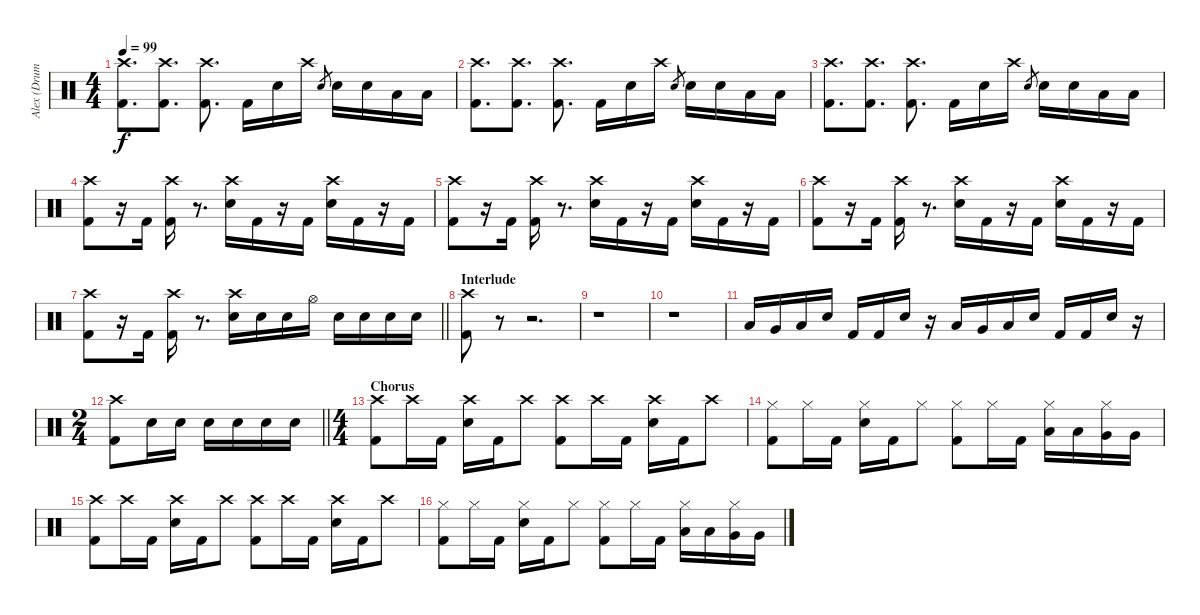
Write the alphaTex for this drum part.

\track ("Alex (Drums)" "Alex (Drum") {instrument percussion}
\staff {score}
\articulation defaults
\ts (4 4)
\tempo 99
\clef neutral
\ks c
("Crash high (hit)" "Kick (hit) 2").8{d dy f} ("Crash high (hit)" "Kick (hit) 2").8{d} ("Crash high (hit)" "Kick (hit) 2").8{d} "Kick (hit) 2".16 "Snare (hit) 2".16 "Crash high (hit)".16 "Snare (hit) 2".8{gr} "Snare (hit) 2".16 "Snare (hit) 2".16 "Low Tom (hit)".16 "Low Tom (hit)".16 |
("Crash high (hit)" "Kick (hit) 2").8{d} ("Crash high (hit)" "Kick (hit) 2").8{d} ("Crash high (hit)" "Kick (hit) 2").8{d} "Kick (hit) 2".16 "Snare (hit) 2".16 "Crash high (hit)".16 "Snare (hit) 2".8{gr} "Snare (hit) 2".16 "Snare (hit) 2".16 "Low Tom (hit)".16 "Low Tom (hit)".16 |
("Crash high (hit)" "Kick (hit) 2").8{d} ("Crash high (hit)" "Kick (hit) 2").8{d} ("Crash high (hit)" "Kick (hit) 2").8{d} "Kick (hit) 2".16 "Snare (hit) 2".16 "Crash high (hit)".16 "Snare (hit) 2".8{gr} "Snare (hit) 2".16 "Snare (hit) 2".16 "Low Tom (hit)".16 "Low Tom (hit)".16 |
("Crash high (hit)" "Kick (hit) 2").8 r.16 "Kick (hit) 2".16 ("Crash high (hit)" "Kick (hit) 2").16 r.8{d} ("Crash high (hit)" "Snare (hit) 2").16 "Kick (hit) 2".16 r.16 "Kick (hit) 2".16 ("Crash high (hit)" "Snare (hit) 2").16 "Kick (hit) 2".16 r.16 "Kick (hit) 2".16 |
("Crash high (hit)" "Kick (hit) 2").8 r.16 "Kick (hit) 2".16 ("Crash high (hit)" "Kick (hit) 2").16 r.8{d} ("Crash high (hit)" "Snare (hit) 2").16 "Kick (hit) 2".16 r.16 "Kick (hit) 2".16 ("Crash high (hit)" "Snare (hit) 2").16 "Kick (hit) 2".16 r.16 "Kick (hit) 2".16 |
("Crash high (hit)" "Kick (hit) 2").8 r.16 "Kick (hit) 2".16 ("Crash high (hit)" "Kick (hit) 2").16 r.8{d} ("Crash high (hit)" "Snare (hit) 2").16 "Kick (hit) 2".16 r.16 "Kick (hit) 2".16 ("Crash high (hit)" "Snare (hit) 2").16 "Kick (hit) 2".16 r.16 "Kick (hit) 2".16 |
\barLineRight lightlight
("Crash high (hit)" "Kick (hit) 2").8 r.16 "Kick (hit) 2".16 ("Crash high (hit)" "Kick (hit) 2").16 r.8{d} ("Crash high (hit)" "Snare (hit) 2").16 "Snare (hit) 2".16 "Snare (hit) 2".16 "Hi-Hat (open)".16 "Snare (hit) 2".16 "Snare (hit) 2".16 "Snare (hit) 2".16 "Snare (hit) 2".16 |
\section ("" "Interlude")
("Crash high (hit)" "Kick (hit) 2").8 r.8 r.2{d} |
r.1 |
r.1 |
"Low Tom (hit)".16 "Very Low Tom (hit)".16 "Low Floor Tom (hit)".16 "Snare (hit) 2".16 "Kick (hit) 2".16 "Kick (hit) 2".16 "Snare (hit) 2".16 r.16 "Low Tom (hit)".16 "Very Low Tom (hit)".16 "Low Floor Tom (hit)".16 "Snare (hit) 2".16 "Kick (hit) 2".16 "Kick (hit) 2".16 "Snare (hit) 2".16 r.16 |
\ts (2 4)
\barLineRight lightlight
("Crash high (hit)" "Kick (hit) 2").8 "Snare (hit) 2".16 "Snare (hit) 2".16 "Snare (hit) 2".16 "Snare (hit) 2".16 "Snare (hit) 2".16 "Snare (hit) 2".16 |
\ts (4 4)
\section ("" "Chorus")
("Crash high (hit)" "Kick (hit) 2").8 "Crash high (hit)".16 "Kick (hit) 2".16 ("Crash high (hit)" "Snare (hit) 2").16 "Kick (hit) 2".16 "Crash high (hit)".8 ("Crash high (hit)" "Kick (hit) 2").8 "Crash high (hit)".16 "Kick (hit) 2".16 ("Crash high (hit)" "Snare (hit) 2").16 "Kick (hit) 2".16 "Crash high (hit)".8 |
("Hi-Hat (closed)" "Kick (hit) 2").8 "Hi-Hat (closed)".16 "Kick (hit) 2".16 ("Hi-Hat (closed)" "Snare (hit) 2").16 "Kick (hit) 2".16 "Hi-Hat (closed)".8 ("Hi-Hat (closed)" "Kick (hit) 2").8 "Hi-Hat (closed)".16 "Kick (hit) 2".16 ("Hi-Hat (closed)" "Low Tom (hit)").16 "Low Tom (hit)".16 ("Hi-Hat (closed)" "Very Low Tom (hit)").16 "Very Low Tom (hit)".16 |
("Crash high (hit)" "Kick (hit) 2").8 "Crash high (hit)".16 "Kick (hit) 2".16 ("Crash high (hit)" "Snare (hit) 2").16 "Kick (hit) 2".16 "Crash high (hit)".8 ("Crash high (hit)" "Kick (hit) 2").8 "Crash high (hit)".16 "Kick (hit) 2".16 ("Crash high (hit)" "Snare (hit) 2").16 "Kick (hit) 2".16 "Crash high (hit)".8 |
("Hi-Hat (closed)" "Kick (hit) 2").8 "Hi-Hat (closed)".16 "Kick (hit) 2".16 ("Hi-Hat (closed)" "Snare (hit) 2").16 "Kick (hit) 2".16 "Hi-Hat (closed)".8 ("Hi-Hat (closed)" "Kick (hit) 2").8 "Hi-Hat (closed)".16 "Kick (hit) 2".16 ("Hi-Hat (closed)" "Low Tom (hit)").16 "Low Tom (hit)".16 ("Hi-Hat (closed)" "Very Low Tom (hit)").16 "Very Low Tom (hit)".16
